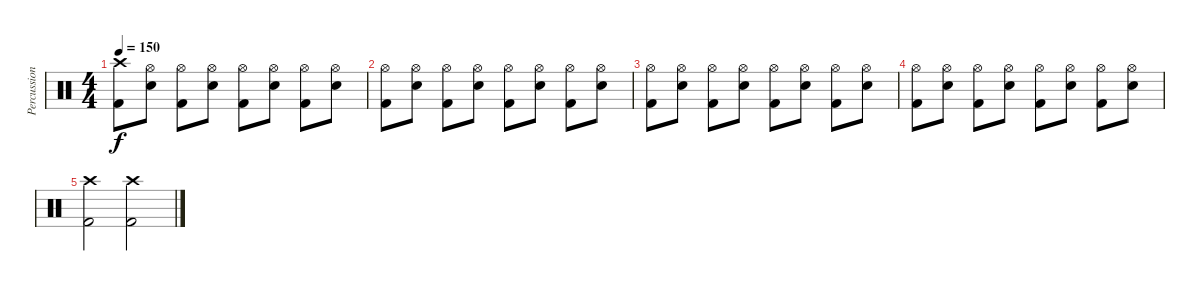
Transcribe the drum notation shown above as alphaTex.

\track ("Percussion" "Percussion") {instrument percussion}
\staff {score}
\articulation defaults
\ts (4 4)
\tempo 150
\clef neutral
\ks c
("Crash high (hit)" "Kick (hit) 2").8{dy f} ("Hi-Hat (open)" "Snare (hit) 2").8 ("Hi-Hat (open)" "Kick (hit) 2").8 ("Hi-Hat (open)" "Snare (hit) 2").8 ("Hi-Hat (open)" "Kick (hit) 2").8 ("Hi-Hat (open)" "Snare (hit) 2").8 ("Hi-Hat (open)" "Kick (hit) 2").8 ("Hi-Hat (open)" "Snare (hit) 2").8 |
("Hi-Hat (open)" "Kick (hit) 2").8 ("Hi-Hat (open)" "Snare (hit) 2").8 ("Hi-Hat (open)" "Kick (hit) 2").8 ("Hi-Hat (open)" "Snare (hit) 2").8 ("Hi-Hat (open)" "Kick (hit) 2").8 ("Hi-Hat (open)" "Snare (hit) 2").8 ("Hi-Hat (open)" "Kick (hit) 2").8 ("Hi-Hat (open)" "Snare (hit) 2").8 |
("Hi-Hat (open)" "Kick (hit) 2").8 ("Hi-Hat (open)" "Snare (hit) 2").8 ("Hi-Hat (open)" "Kick (hit) 2").8 ("Hi-Hat (open)" "Snare (hit) 2").8 ("Hi-Hat (open)" "Kick (hit) 2").8 ("Hi-Hat (open)" "Snare (hit) 2").8 ("Hi-Hat (open)" "Kick (hit) 2").8 ("Hi-Hat (open)" "Snare (hit) 2").8 |
("Hi-Hat (open)" "Kick (hit) 2").8 ("Hi-Hat (open)" "Snare (hit) 2").8 ("Hi-Hat (open)" "Kick (hit) 2").8 ("Hi-Hat (open)" "Snare (hit) 2").8 ("Hi-Hat (open)" "Kick (hit) 2").8 ("Hi-Hat (open)" "Snare (hit) 2").8 ("Hi-Hat (open)" "Kick (hit) 2").8 ("Hi-Hat (open)" "Snare (hit) 2").8 |
("Crash high (hit)" "Kick (hit) 2").2 ("Crash high (hit)" "Kick (hit) 2").2
